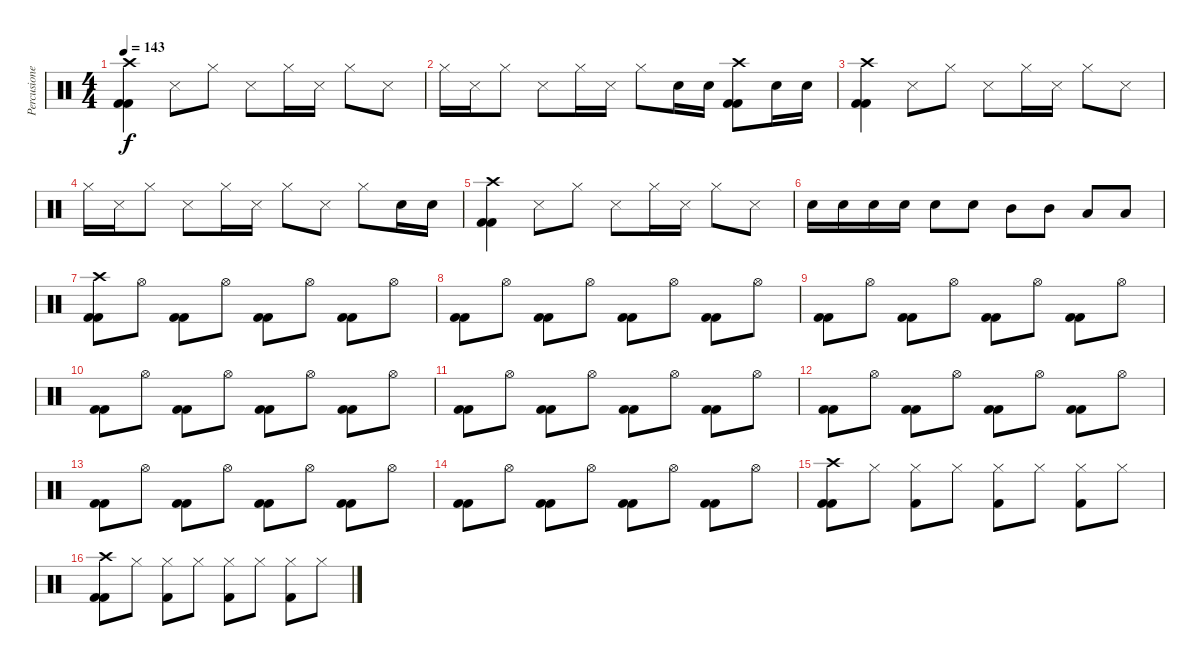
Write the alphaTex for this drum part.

\track ("Percusiones" "Percusione") {instrument percussion}
\staff {score}
\articulation defaults
\ts (4 4)
\tempo 143
\clef neutral
\ks c
("Crash high (hit)" "Kick (hit) 2" "Kick (hit) 2").4{dy f} "Snare (side stick) 3".8 "Hi-Hat (closed)".8 "Snare (side stick) 3".8 "Hi-Hat (closed)".16 "Snare (side stick) 3".16 "Hi-Hat (closed)".8 "Snare (side stick) 3".8 |
"Hi-Hat (closed)".16 "Snare (side stick) 3".16 "Hi-Hat (closed)".8 "Snare (side stick) 3".8 "Hi-Hat (closed)".16 "Snare (side stick) 3".16 "Hi-Hat (closed)".8 "Snare (hit) 2".16 "Snare (hit) 2".16 ("Crash high (hit)" "Kick (hit) 2" "Kick (hit) 2").8 "Snare (hit) 2".16 "Snare (hit) 2".16 |
("Crash high (hit)" "Kick (hit) 2" "Kick (hit) 2").4 "Snare (side stick) 3".8 "Hi-Hat (closed)".8 "Snare (side stick) 3".8 "Hi-Hat (closed)".16 "Snare (side stick) 3".16 "Hi-Hat (closed)".8 "Snare (side stick) 3".8 |
"Hi-Hat (closed)".16 "Snare (side stick) 3".16 "Hi-Hat (closed)".8 "Snare (side stick) 3".8 "Hi-Hat (closed)".16 "Snare (side stick) 3".16 "Hi-Hat (closed)".8 "Snare (side stick) 3".8 "Hi-Hat (closed)".8 "Snare (hit) 2".16 "Snare (hit) 2".16 |
("Crash high (hit)" "Kick (hit) 2" "Kick (hit) 2").4 "Snare (side stick) 3".8 "Hi-Hat (closed)".8 "Snare (side stick) 3".8 "Hi-Hat (closed)".16 "Snare (side stick) 3".16 "Hi-Hat (closed)".8 "Snare (side stick) 3".8 |
"Snare (hit) 2".16 "Snare (hit) 2".16 "Snare (hit) 2".16 "Snare (hit) 2".16 "Snare (hit) 2".8 "Snare (hit) 2".8 "Mid Tom (hit)".8 "Mid Tom (hit)".8 "Low Tom (hit)".8 "Low Tom (hit)".8 |
("Crash high (hit)" "Kick (hit) 2" "Kick (hit) 2").8 "Hi-Hat (open)".8 ("Kick (hit) 2" "Kick (hit) 2").8 "Hi-Hat (open)".8 ("Kick (hit) 2" "Kick (hit) 2").8 "Hi-Hat (open)".8 ("Kick (hit) 2" "Kick (hit) 2").8 "Hi-Hat (open)".8 |
("Kick (hit) 2" "Kick (hit) 2").8 "Hi-Hat (open)".8 ("Kick (hit) 2" "Kick (hit) 2").8 "Hi-Hat (open)".8 ("Kick (hit) 2" "Kick (hit) 2").8 "Hi-Hat (open)".8 ("Kick (hit) 2" "Kick (hit) 2").8 "Hi-Hat (open)".8 |
("Kick (hit) 2" "Kick (hit) 2").8 "Hi-Hat (open)".8 ("Kick (hit) 2" "Kick (hit) 2").8 "Hi-Hat (open)".8 ("Kick (hit) 2" "Kick (hit) 2").8 "Hi-Hat (open)".8 ("Kick (hit) 2" "Kick (hit) 2").8 "Hi-Hat (open)".8 |
("Kick (hit) 2" "Kick (hit) 2").8 "Hi-Hat (open)".8 ("Kick (hit) 2" "Kick (hit) 2").8 "Hi-Hat (open)".8 ("Kick (hit) 2" "Kick (hit) 2").8 "Hi-Hat (open)".8 ("Kick (hit) 2" "Kick (hit) 2").8 "Hi-Hat (open)".8 |
("Kick (hit) 2" "Kick (hit) 2").8 "Hi-Hat (open)".8 ("Kick (hit) 2" "Kick (hit) 2").8 "Hi-Hat (open)".8 ("Kick (hit) 2" "Kick (hit) 2").8 "Hi-Hat (open)".8 ("Kick (hit) 2" "Kick (hit) 2").8 "Hi-Hat (open)".8 |
("Kick (hit) 2" "Kick (hit) 2").8 "Hi-Hat (open)".8 ("Kick (hit) 2" "Kick (hit) 2").8 "Hi-Hat (open)".8 ("Kick (hit) 2" "Kick (hit) 2").8 "Hi-Hat (open)".8 ("Kick (hit) 2" "Kick (hit) 2").8 "Hi-Hat (open)".8 |
("Kick (hit) 2" "Kick (hit) 2").8 "Hi-Hat (open)".8 ("Kick (hit) 2" "Kick (hit) 2").8 "Hi-Hat (open)".8 ("Kick (hit) 2" "Kick (hit) 2").8 "Hi-Hat (open)".8 ("Kick (hit) 2" "Kick (hit) 2").8 "Hi-Hat (open)".8 |
("Kick (hit) 2" "Kick (hit) 2").8 "Hi-Hat (open)".8 ("Kick (hit) 2" "Kick (hit) 2").8 "Hi-Hat (open)".8 ("Kick (hit) 2" "Kick (hit) 2").8 "Hi-Hat (open)".8 ("Kick (hit) 2" "Kick (hit) 2").8 "Hi-Hat (open)".8 |
("Crash high (hit)" "Kick (hit) 2" "Kick (hit) 2").8 "Hi-Hat (closed)".8 ("Kick (hit) 2" "Hi-Hat (closed)").8 "Hi-Hat (closed)".8 ("Kick (hit) 2" "Hi-Hat (closed)").8 "Hi-Hat (closed)".8 ("Kick (hit) 2" "Hi-Hat (closed)").8 "Hi-Hat (closed)".8 |
("Crash high (hit)" "Kick (hit) 2" "Kick (hit) 2").8 "Hi-Hat (closed)".8 ("Kick (hit) 2" "Hi-Hat (closed)").8 "Hi-Hat (closed)".8 ("Kick (hit) 2" "Hi-Hat (closed)").8 "Hi-Hat (closed)".8 ("Kick (hit) 2" "Hi-Hat (closed)").8 "Hi-Hat (closed)".8
